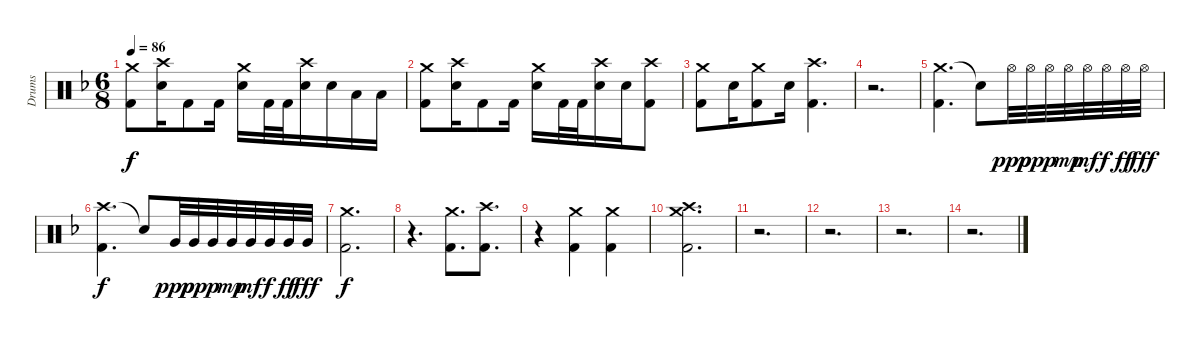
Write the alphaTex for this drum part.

\track ("Drums" "Drums") {instrument percussion}
\staff {score}
\articulation defaults
\ts (6 8)
\tempo 86
\clef neutral
\ks dminor
("Crash medium (hit)" "Kick (hit) 2").8{dy f} ("Crash high (hit)" "Snare (hit) 2").16 "Kick (hit) 2".8 "Kick (hit) 2".16 ("Crash medium (hit)" "Snare (hit) 2").16 "Kick (hit) 2".32 "Kick (hit) 2".32 ("Crash high (hit)" "Snare (hit) 2").16 "Snare (hit) 2".16 "Low Tom (hit)".16 "Low Tom (hit)".16 |
("Crash medium (hit)" "Kick (hit) 2").8 ("Crash high (hit)" "Snare (hit) 2").16 "Kick (hit) 2".8 "Kick (hit) 2".16 ("Crash medium (hit)" "Snare (hit) 2").16 "Kick (hit) 2".32 "Kick (hit) 2".32 ("Crash high (hit)" "Snare (hit) 2").16 "Snare (hit) 2".16 ("Crash high (hit)" "Kick (hit) 2").8 |
("Crash medium (hit)" "Kick (hit) 2").8 "Snare (hit) 2".16 ("Crash medium (hit)" "Kick (hit) 2").8 "Snare (hit) 2".16 ("Crash high (hit)" "Kick (hit) 2").4{d} |
r.2{d} |
("Crash medium (hit)" "Kick (hit) 2").4{d} "Snare (hit)"{t}.8 "Hi-Hat (open)".32{dy ppp} "Hi-Hat (open)".32{dy pp} "Hi-Hat (open)".32{dy p} "Hi-Hat (open)".32{dy mp} "Hi-Hat (open)".32{dy mf} "Hi-Hat (open)".32{dy f} "Hi-Hat (open)".32{dy ff} "Hi-Hat (open)".32{dy fff} |
("Crash high (hit)" "Kick (hit) 2").4{d dy f} "Snare (hit)"{t}.8 "Very Low Tom (hit)".32{dy ppp} "Very Low Tom (hit)".32{dy pp} "Very Low Tom (hit)".32{dy p} "Very Low Tom (hit)".32{dy mp} "Very Low Tom (hit)".32{dy mf} "Very Low Tom (hit)".32{dy f} "Very Low Tom (hit)".32{dy ff} "Very Low Tom (hit)".32{dy fff} |
("Crash medium (hit)" "Kick (hit) 2").2{d dy f} |
r.4{d} ("Crash medium (hit)" "Kick (hit) 2").8{d} ("Crash high (hit)" "Kick (hit) 2").8{d} |
r.4 ("Crash medium (hit)" "Kick (hit) 2").4 ("Crash medium (hit)" "Kick (hit) 2").4 |
("Crash high (hit)" "Crash medium (hit)" "Kick (hit) 2").2{d} |
r.2{d} |
r.2{d} |
r.2{d} |
r.2{d}
